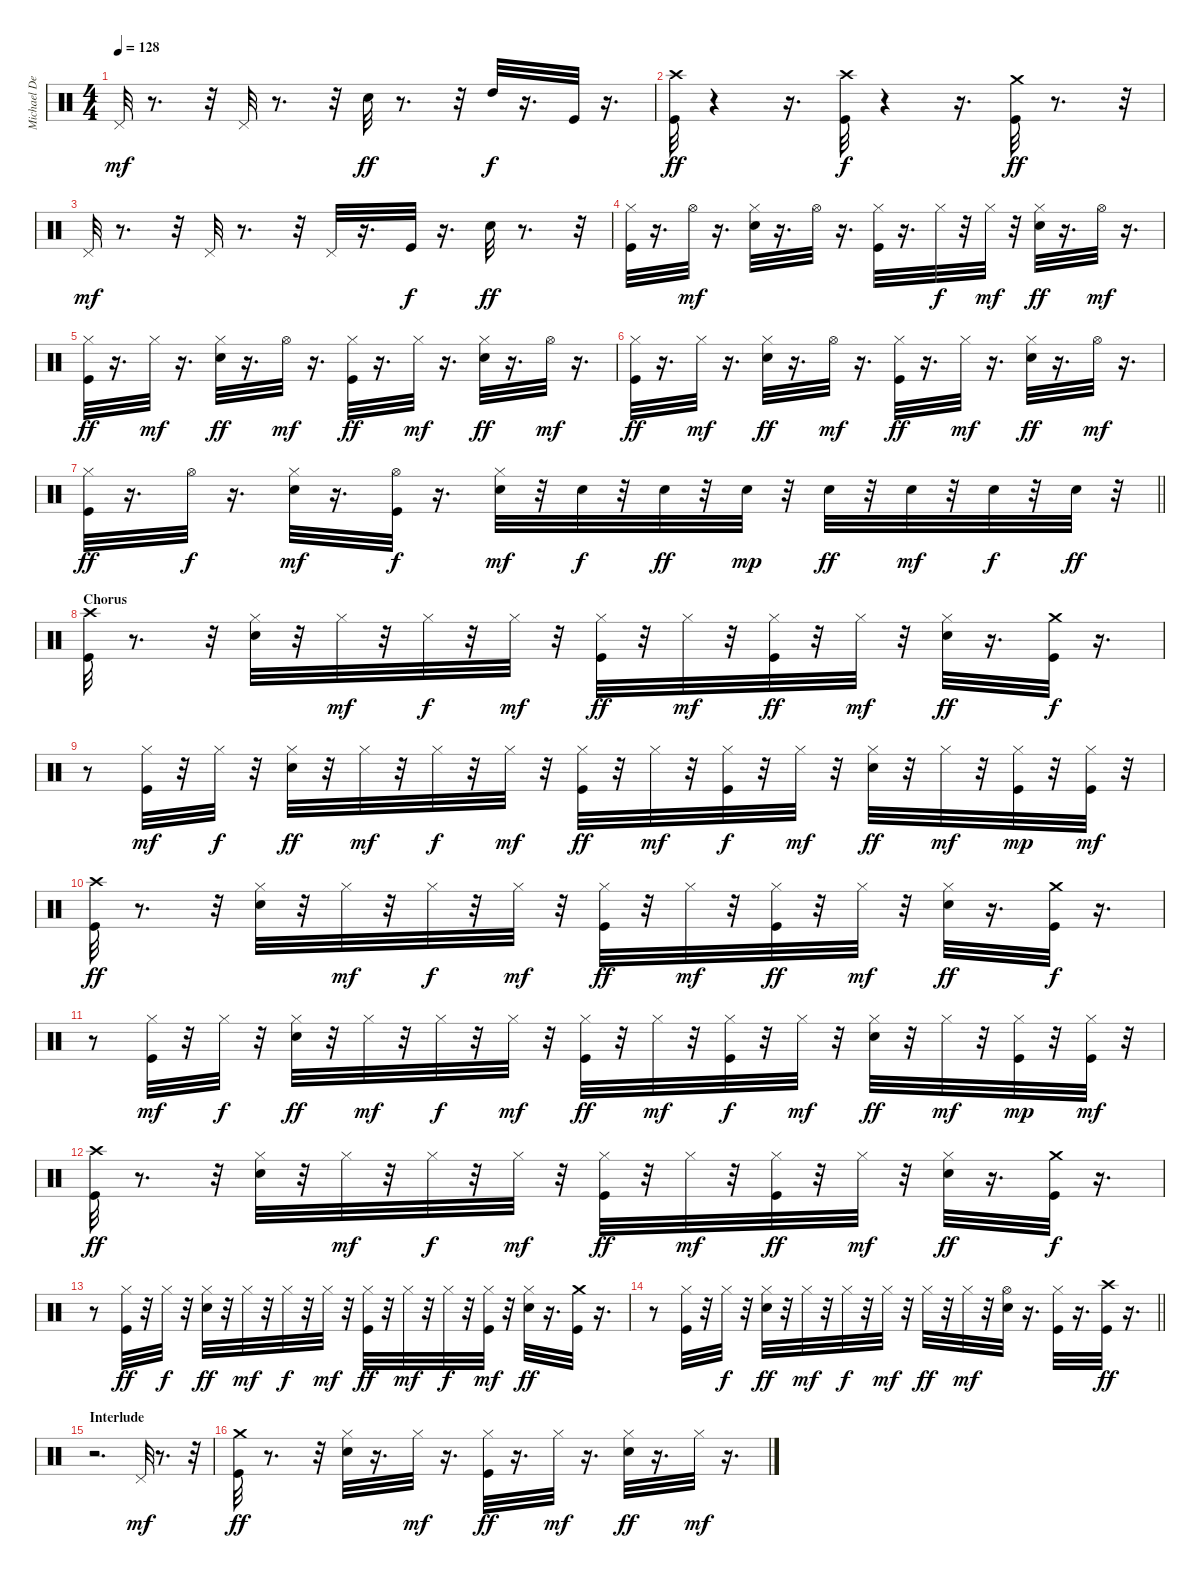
\track ("Michael DeRosier" "Michael De") {instrument percussion}
\staff {score}
\articulation defaults
\ts (4 4)
\tempo 128
\clef neutral
\ks c "Pedal Hi-Hat (hit)".32{dy mf}
r.8{d} r.32 "Pedal Hi-Hat (hit)".32 r.8{d} r.32 "Snare (hit) 2".32{dy ff} r.8{d} r.32 "High Tom (hit)".32{dy f} r.16{d} "Kick (hit)".32 r.16{d} |
("Kick (hit)" "Crash high (hit)").32{dy ff} r.4 r.16{d} ("Kick (hit)" "Crash high (hit)").32{dy f} r.4 r.16{d} ("Kick (hit)" "Crash medium (hit)").32{dy ff} r.8{d} r.32 |
"Pedal Hi-Hat (hit)".32{dy mf} r.8{d} r.32 "Pedal Hi-Hat (hit)".32 r.8{d} r.32 "Pedal Hi-Hat (hit)".32 r.16{d} "Kick (hit)".32{dy f} r.16{d} "Snare (hit) 2".32{dy ff} r.8{d} r.32 |
("Kick (hit)" "Hi-Hat (closed)").32 r.16{d} "Hi-Hat (open)".32{dy mf} r.16{d} ("Snare (hit) 2" "Hi-Hat (closed)").32 r.16{d} "Hi-Hat (open)".32 r.16{d} ("Kick (hit)" "Hi-Hat (closed)").32 r.16{d} "Hi-Hat (closed)".32{dy f} r.32 "Hi-Hat (closed)".32{dy mf} r.32 ("Snare (hit) 2" "Hi-Hat (closed)").32{dy ff} r.16{d} "Hi-Hat (open)".32{dy mf} r.16{d} |
("Hi-Hat (closed)" "Kick (hit)").32{dy ff} r.16{d} "Hi-Hat (closed)".32{dy mf} r.16{d} ("Snare (hit) 2" "Hi-Hat (closed)").32{dy ff} r.16{d} "Hi-Hat (open)".32{dy mf} r.16{d} ("Kick (hit)" "Hi-Hat (closed)").32{dy ff} r.16{d} "Hi-Hat (closed)".32{dy mf} r.16{d} ("Snare (hit) 2" "Hi-Hat (closed)").32{dy ff} r.16{d} "Hi-Hat (open)".32{dy mf} r.16{d} |
("Hi-Hat (closed)" "Kick (hit)").32{dy ff} r.16{d} "Hi-Hat (closed)".32{dy mf} r.16{d} ("Snare (hit) 2" "Hi-Hat (closed)").32{dy ff} r.16{d} "Hi-Hat (open)".32{dy mf} r.16{d} ("Hi-Hat (closed)" "Kick (hit)").32{dy ff} r.16{d} "Hi-Hat (closed)".32{dy mf} r.16{d} ("Snare (hit) 2" "Hi-Hat (closed)").32{dy ff} r.16{d} "Hi-Hat (open)".32{dy mf} r.16{d} |
\barLineRight lightlight
("Hi-Hat (closed)" "Kick (hit)").32{dy ff} r.16{d} "Hi-Hat (open)".32{dy f} r.16{d} ("Snare (hit) 2" "Hi-Hat (closed)").32{dy mf} r.16{d} ("Hi-Hat (open)" "Kick (hit)").32{dy f} r.16{d} ("Snare (hit) 2" "Hi-Hat (closed)").32{dy mf} r.32 "Snare (hit) 2".32{dy f} r.32 "Snare (hit) 2".32{dy ff} r.32 "Snare (hit) 2".32{dy mp} r.32 "Snare (hit) 2".32{dy ff} r.32 "Snare (hit) 2".32{dy mf} r.32 "Snare (hit) 2".32{dy f} r.32 "Snare (hit) 2".32{dy ff} r.32 |
\section ("" "Chorus")
("Kick (hit)" "Crash high (hit)").32 r.8{d} r.32 ("Snare (hit) 2" "Hi-Hat (closed)").32 r.32 "Hi-Hat (closed)".32{dy mf} r.32 "Hi-Hat (closed)".32{dy f} r.32 "Hi-Hat (closed)".32{dy mf} r.32 ("Hi-Hat (closed)" "Kick (hit)").32{dy ff} r.32 "Hi-Hat (closed)".32{dy mf} r.32 ("Hi-Hat (closed)" "Kick (hit)").32{dy ff} r.32 "Hi-Hat (closed)".32{dy mf} r.32 ("Snare (hit) 2" "Hi-Hat (closed)").32{dy ff} r.16{d} ("Kick (hit)" "Crash medium (hit)").32{dy f} r.16{d} |
r.8 ("Hi-Hat (closed)" "Kick (hit)").32{dy mf} r.32 "Hi-Hat (closed)".32{dy f} r.32 ("Snare (hit) 2" "Hi-Hat (closed)").32{dy ff} r.32 "Hi-Hat (closed)".32{dy mf} r.32 "Hi-Hat (closed)".32{dy f} r.32 "Hi-Hat (closed)".32{dy mf} r.32 ("Hi-Hat (closed)" "Kick (hit)").32{dy ff} r.32 "Hi-Hat (closed)".32{dy mf} r.32 ("Kick (hit)" "Hi-Hat (closed)").32{dy f} r.32 "Hi-Hat (closed)".32{dy mf} r.32 ("Snare (hit) 2" "Hi-Hat (closed)").32{dy ff} r.32 "Hi-Hat (closed)".32{dy mf} r.32 ("Hi-Hat (closed)" "Kick (hit)").32{dy mp} r.32 ("Hi-Hat (closed)" "Kick (hit)").32{dy mf} r.32 |
("Kick (hit)" "Crash high (hit)").32{dy ff} r.8{d} r.32 ("Snare (hit) 2" "Hi-Hat (closed)").32 r.32 "Hi-Hat (closed)".32{dy mf} r.32 "Hi-Hat (closed)".32{dy f} r.32 "Hi-Hat (closed)".32{dy mf} r.32 ("Kick (hit)" "Hi-Hat (closed)").32{dy ff} r.32 "Hi-Hat (closed)".32{dy mf} r.32 ("Hi-Hat (closed)" "Kick (hit)").32{dy ff} r.32 "Hi-Hat (closed)".32{dy mf} r.32 ("Snare (hit) 2" "Hi-Hat (closed)").32{dy ff} r.16{d} ("Kick (hit)" "Crash medium (hit)").32{dy f} r.16{d} |
r.8 ("Hi-Hat (closed)" "Kick (hit)").32{dy mf} r.32 "Hi-Hat (closed)".32{dy f} r.32 ("Snare (hit) 2" "Hi-Hat (closed)").32{dy ff} r.32 "Hi-Hat (closed)".32{dy mf} r.32 "Hi-Hat (closed)".32{dy f} r.32 "Hi-Hat (closed)".32{dy mf} r.32 ("Hi-Hat (closed)" "Kick (hit)").32{dy ff} r.32 "Hi-Hat (closed)".32{dy mf} r.32 ("Hi-Hat (closed)" "Kick (hit)").32{dy f} r.32 "Hi-Hat (closed)".32{dy mf} r.32 ("Snare (hit) 2" "Hi-Hat (closed)").32{dy ff} r.32 "Hi-Hat (closed)".32{dy mf} r.32 ("Hi-Hat (closed)" "Kick (hit)").32{dy mp} r.32 ("Hi-Hat (closed)" "Kick (hit)").32{dy mf} r.32 |
("Kick (hit)" "Crash high (hit)").32{dy ff} r.8{d} r.32 ("Snare (hit) 2" "Hi-Hat (closed)").32 r.32 "Hi-Hat (closed)".32{dy mf} r.32 "Hi-Hat (closed)".32{dy f} r.32 "Hi-Hat (closed)".32{dy mf} r.32 ("Hi-Hat (closed)" "Kick (hit)").32{dy ff} r.32 "Hi-Hat (closed)".32{dy mf} r.32 ("Hi-Hat (closed)" "Kick (hit)").32{dy ff} r.32 "Hi-Hat (closed)".32{dy mf} r.32 ("Snare (hit) 2" "Hi-Hat (closed)").32{dy ff} r.16{d} ("Kick (hit)" "Crash medium (hit)").32{dy f} r.16{d} |
r.8 ("Hi-Hat (closed)" "Kick (hit)").32{dy ff} r.32 "Hi-Hat (closed)".32{dy f} r.32 ("Snare (hit) 2" "Hi-Hat (closed)").32{dy ff} r.32 "Hi-Hat (closed)".32{dy mf} r.32 "Hi-Hat (closed)".32{dy f} r.32 "Hi-Hat (closed)".32{dy mf} r.32 ("Kick (hit)" "Hi-Hat (closed)").32{dy ff} r.32 "Hi-Hat (closed)".32{dy mf} r.32 "Hi-Hat (closed)".32{dy f} r.32 ("Hi-Hat (closed)" "Kick (hit)").32{dy mf} r.32 ("Snare (hit) 2" "Hi-Hat (closed)").32{dy ff} r.16{d} ("Kick (hit)" "Crash medium (hit)").32 r.16{d} |
\barLineRight lightlight
r.8 ("Hi-Hat (closed)" "Kick (hit)").32 r.32 "Hi-Hat (closed)".32{dy f} r.32 ("Snare (hit) 2" "Hi-Hat (closed)").32{dy ff} r.32 "Hi-Hat (closed)".32{dy mf} r.32 "Hi-Hat (closed)".32{dy f} r.32 "Hi-Hat (closed)".32{dy mf} r.32 "Hi-Hat (closed)".32{dy ff} r.32 "Hi-Hat (closed)".32{dy mf} r.32 ("Snare (hit) 2" "Hi-Hat (open)").32 r.16{d} ("Hi-Hat (closed)" "Kick (hit)").32 r.16{d} ("Kick (hit)" "Crash high (hit)").32{dy ff} r.16{d} |
\section ("" "Interlude")
r.2{d} "Pedal Hi-Hat (hit)".32{dy mf} r.8{d} r.32 |
("Kick (hit)" "Crash medium (hit)").32{dy ff} r.8{d} r.32 ("Snare (hit) 2" "Hi-Hat (closed)").32 r.16{d} "Hi-Hat (closed)".32{dy mf} r.16{d} ("Hi-Hat (closed)" "Kick (hit)").32{dy ff} r.16{d} "Hi-Hat (closed)".32{dy mf} r.16{d} ("Snare (hit) 2" "Hi-Hat (closed)").32{dy ff} r.16{d} "Hi-Hat (closed)".32{dy mf} r.16{d}
